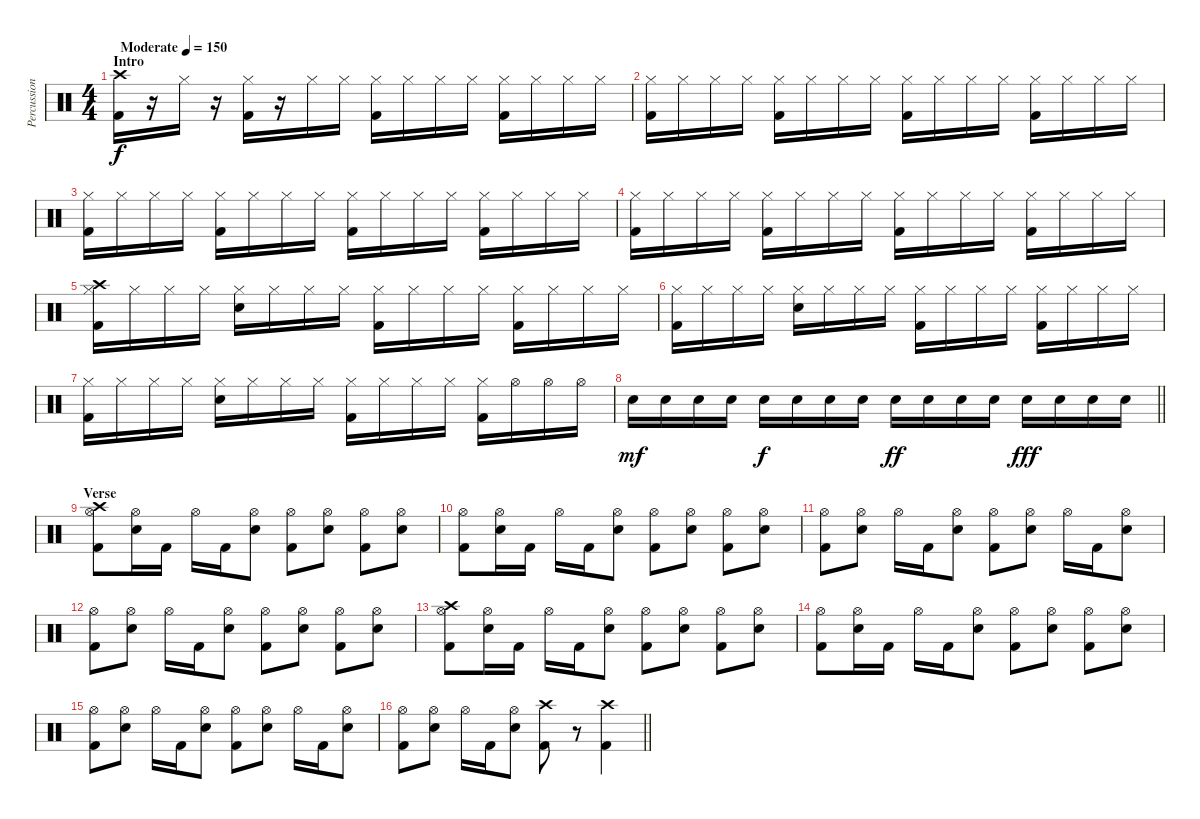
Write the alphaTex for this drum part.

\track ("Percussion" "Percussion") {instrument percussion}
\staff {score}
\articulation defaults
\ts (4 4)
\section ("" "Intro")
\tempo (150 "Moderate")
\clef neutral
\ks c
("Crash high (hit)" "Kick (hit) 2").16{dy f} r.16 "Hi-Hat (closed)".16 r.16 ("Hi-Hat (closed)" "Kick (hit) 2").16 r.16 "Hi-Hat (closed)".16 "Hi-Hat (closed)".16 ("Hi-Hat (closed)" "Kick (hit) 2").16 "Hi-Hat (closed)".16 "Hi-Hat (closed)".16 "Hi-Hat (closed)".16 ("Hi-Hat (closed)" "Kick (hit) 2").16 "Hi-Hat (closed)".16 "Hi-Hat (closed)".16 "Hi-Hat (closed)".16 |
("Hi-Hat (closed)" "Kick (hit) 2").16 "Hi-Hat (closed)".16 "Hi-Hat (closed)".16 "Hi-Hat (closed)".16 ("Hi-Hat (closed)" "Kick (hit) 2").16 "Hi-Hat (closed)".16 "Hi-Hat (closed)".16 "Hi-Hat (closed)".16 ("Hi-Hat (closed)" "Kick (hit) 2").16 "Hi-Hat (closed)".16 "Hi-Hat (closed)".16 "Hi-Hat (closed)".16 ("Hi-Hat (closed)" "Kick (hit) 2").16 "Hi-Hat (closed)".16 "Hi-Hat (closed)".16 "Hi-Hat (closed)".16 |
("Hi-Hat (closed)" "Kick (hit) 2").16 "Hi-Hat (closed)".16 "Hi-Hat (closed)".16 "Hi-Hat (closed)".16 ("Hi-Hat (closed)" "Kick (hit) 2").16 "Hi-Hat (closed)".16 "Hi-Hat (closed)".16 "Hi-Hat (closed)".16 ("Hi-Hat (closed)" "Kick (hit) 2").16 "Hi-Hat (closed)".16 "Hi-Hat (closed)".16 "Hi-Hat (closed)".16 ("Hi-Hat (closed)" "Kick (hit) 2").16 "Hi-Hat (closed)".16 "Hi-Hat (closed)".16 "Hi-Hat (closed)".16 |
("Hi-Hat (closed)" "Kick (hit) 2").16 "Hi-Hat (closed)".16 "Hi-Hat (closed)".16 "Hi-Hat (closed)".16 ("Hi-Hat (closed)" "Kick (hit) 2").16 "Hi-Hat (closed)".16 "Hi-Hat (closed)".16 "Hi-Hat (closed)".16 ("Hi-Hat (closed)" "Kick (hit) 2").16 "Hi-Hat (closed)".16 "Hi-Hat (closed)".16 "Hi-Hat (closed)".16 ("Hi-Hat (closed)" "Kick (hit) 2").16 "Hi-Hat (closed)".16 "Hi-Hat (closed)".16 "Hi-Hat (closed)".16 |
("Crash high (hit)" "Hi-Hat (closed)" "Kick (hit) 2").16 "Hi-Hat (closed)".16 "Hi-Hat (closed)".16 "Hi-Hat (closed)".16 ("Hi-Hat (closed)" "Snare (hit) 2").16 "Hi-Hat (closed)".16 "Hi-Hat (closed)".16 "Hi-Hat (closed)".16 ("Hi-Hat (closed)" "Kick (hit) 2").16 "Hi-Hat (closed)".16 "Hi-Hat (closed)".16 "Hi-Hat (closed)".16 ("Hi-Hat (closed)" "Kick (hit) 2").16 "Hi-Hat (closed)".16 "Hi-Hat (closed)".16 "Hi-Hat (closed)".16 |
("Hi-Hat (closed)" "Kick (hit) 2").16 "Hi-Hat (closed)".16 "Hi-Hat (closed)".16 "Hi-Hat (closed)".16 ("Hi-Hat (closed)" "Snare (hit) 2").16 "Hi-Hat (closed)".16 "Hi-Hat (closed)".16 "Hi-Hat (closed)".16 ("Hi-Hat (closed)" "Kick (hit) 2").16 "Hi-Hat (closed)".16 "Hi-Hat (closed)".16 "Hi-Hat (closed)".16 ("Hi-Hat (closed)" "Kick (hit) 2").16 "Hi-Hat (closed)".16 "Hi-Hat (closed)".16 "Hi-Hat (closed)".16 |
("Hi-Hat (closed)" "Kick (hit) 2").16 "Hi-Hat (closed)".16 "Hi-Hat (closed)".16 "Hi-Hat (closed)".16 ("Hi-Hat (closed)" "Snare (hit) 2").16 "Hi-Hat (closed)".16 "Hi-Hat (closed)".16 "Hi-Hat (closed)".16 ("Hi-Hat (closed)" "Kick (hit) 2").16 "Hi-Hat (closed)".16 "Hi-Hat (closed)".16 "Hi-Hat (closed)".16 ("Hi-Hat (closed)" "Kick (hit) 2").16 "Hi-Hat (open)".16 "Hi-Hat (open)".16 "Hi-Hat (open)".16 |
\barLineRight lightlight "Snare (hit) 2".16{dy mf} "Snare (hit) 2".16 "Snare (hit) 2".16 "Snare (hit) 2".16 "Snare (hit) 2".16{dy f} "Snare (hit) 2".16 "Snare (hit) 2".16 "Snare (hit) 2".16 "Snare (hit) 2".16{dy ff} "Snare (hit) 2".16 "Snare (hit) 2".16 "Snare (hit) 2".16 "Snare (hit) 2".16{dy fff} "Snare (hit) 2".16 "Snare (hit) 2".16 "Snare (hit) 2".16
|
\section ("" "Verse")
("Crash high (hit)" "Hi-Hat (open)" "Kick (hit) 2").8 ("Hi-Hat (open)" "Snare (hit) 2").16 "Kick (hit) 2".16 "Hi-Hat (open)".16 "Kick (hit) 2".16 ("Hi-Hat (open)" "Snare (hit) 2").8 ("Hi-Hat (open)" "Kick (hit) 2").8 ("Hi-Hat (open)" "Snare (hit) 2").8 ("Hi-Hat (open)" "Kick (hit) 2").8 ("Hi-Hat (open)" "Snare (hit) 2").8 |
("Hi-Hat (open)" "Kick (hit) 2").8 ("Hi-Hat (open)" "Snare (hit) 2").16 "Kick (hit) 2".16 "Hi-Hat (open)".16 "Kick (hit) 2".16 ("Hi-Hat (open)" "Snare (hit) 2").8 ("Hi-Hat (open)" "Kick (hit) 2").8 ("Hi-Hat (open)" "Snare (hit) 2").8 ("Hi-Hat (open)" "Kick (hit) 2").8 ("Hi-Hat (open)" "Snare (hit) 2").8 |
("Hi-Hat (open)" "Kick (hit) 2").8 ("Hi-Hat (open)" "Snare (hit) 2").8 "Hi-Hat (open)".16 "Kick (hit) 2".16 ("Hi-Hat (open)" "Snare (hit) 2").8 ("Hi-Hat (open)" "Kick (hit) 2").8 ("Hi-Hat (open)" "Snare (hit) 2").8 "Hi-Hat (open)".16 "Kick (hit) 2".16 ("Hi-Hat (open)" "Snare (hit) 2").8 |
("Hi-Hat (open)" "Kick (hit) 2").8 ("Hi-Hat (open)" "Snare (hit) 2").8 "Hi-Hat (open)".16 "Kick (hit) 2".16 ("Hi-Hat (open)" "Snare (hit) 2").8 ("Hi-Hat (open)" "Kick (hit) 2").8 ("Hi-Hat (open)" "Snare (hit) 2").8 ("Hi-Hat (open)" "Kick (hit) 2").8 ("Hi-Hat (open)" "Snare (hit) 2").8 |
("Crash high (hit)" "Hi-Hat (open)" "Kick (hit) 2").8 ("Hi-Hat (open)" "Snare (hit) 2").16 "Kick (hit) 2".16 "Hi-Hat (open)".16 "Kick (hit) 2".16 ("Hi-Hat (open)" "Snare (hit) 2").8 ("Hi-Hat (open)" "Kick (hit) 2").8 ("Hi-Hat (open)" "Snare (hit) 2").8 ("Hi-Hat (open)" "Kick (hit) 2").8 ("Hi-Hat (open)" "Snare (hit) 2").8 |
("Hi-Hat (open)" "Kick (hit) 2").8 ("Hi-Hat (open)" "Snare (hit) 2").16 "Kick (hit) 2".16 "Hi-Hat (open)".16 "Kick (hit) 2".16 ("Hi-Hat (open)" "Snare (hit) 2").8 ("Hi-Hat (open)" "Kick (hit) 2").8 ("Hi-Hat (open)" "Snare (hit) 2").8 ("Hi-Hat (open)" "Kick (hit) 2").8 ("Hi-Hat (open)" "Snare (hit) 2").8 |
("Hi-Hat (open)" "Kick (hit) 2").8 ("Hi-Hat (open)" "Snare (hit) 2").8 "Hi-Hat (open)".16 "Kick (hit) 2".16 ("Hi-Hat (open)" "Snare (hit) 2").8 ("Hi-Hat (open)" "Kick (hit) 2").8 ("Hi-Hat (open)" "Snare (hit) 2").8 "Hi-Hat (open)".16 "Kick (hit) 2".16 ("Hi-Hat (open)" "Snare (hit) 2").8 |
\barLineRight lightlight
("Hi-Hat (open)" "Kick (hit) 2").8 ("Hi-Hat (open)" "Snare (hit) 2").8 "Hi-Hat (open)".16 "Kick (hit) 2".16 ("Hi-Hat (open)" "Snare (hit) 2").8 ("Crash high (hit)" "Kick (hit) 2").8 r.8 ("Crash high (hit)" "Kick (hit) 2").4
